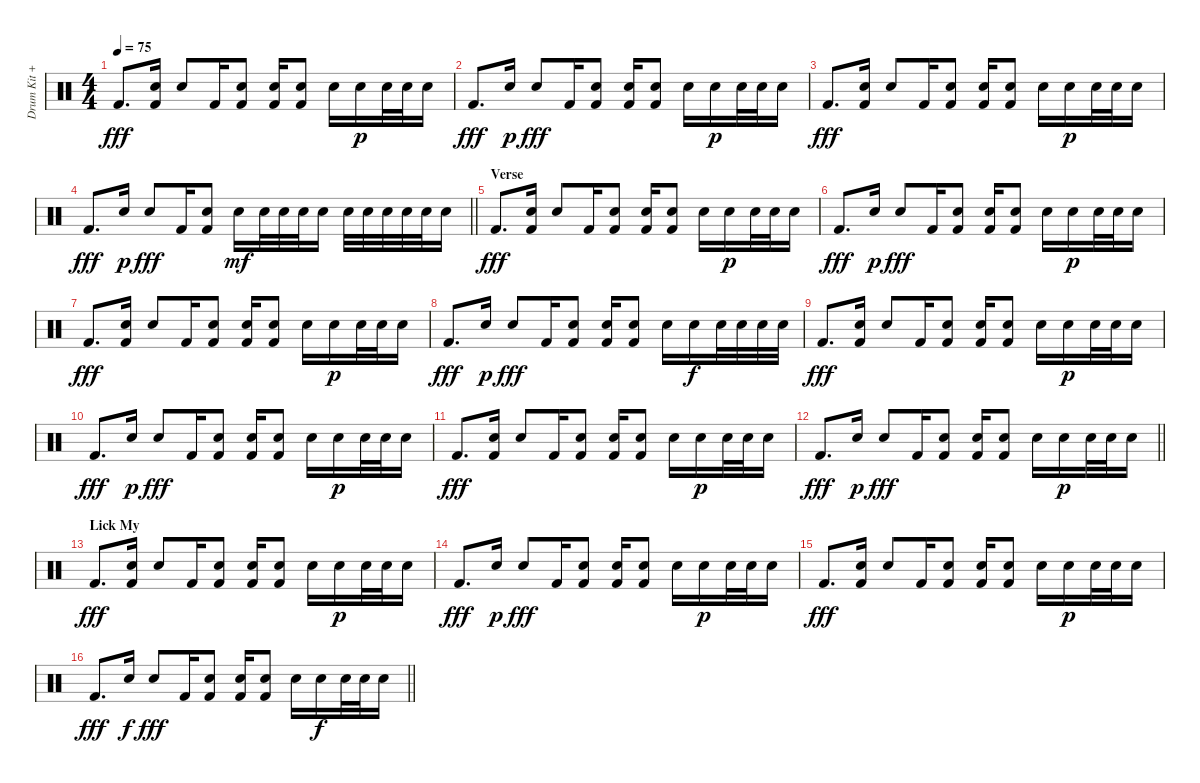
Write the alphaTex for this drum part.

\track ("Drum Kit + Claps" "Drum Kit +") {instrument percussion}
\staff {score}
\articulation defaults
\ts (4 4)
\tempo 75
\clef neutral
\ks c "Kick (hit) 2".8{d dy fff}
("Snare (hit) 2" "Kick (hit) 2").16 "Hand Clap (hit)".8 "Kick (hit) 2".16 ("Snare (hit) 2" "Kick (hit) 2").8 ("Snare (hit) 2" "Kick (hit) 2").16 ("Snare (hit) 2" "Kick (hit) 2").8 "Hand Clap (hit)".16 "Snare (hit) 2".16{dy p} "Snare (hit) 2".32 "Snare (hit) 2".32 "Snare (hit) 2".16 |
"Kick (hit) 2".8{d dy fff} "Snare (hit) 2".16{dy p} "Hand Clap (hit)".8{dy fff} "Kick (hit) 2".16 ("Snare (hit) 2" "Kick (hit) 2").8 ("Snare (hit) 2" "Kick (hit) 2").16 ("Snare (hit) 2" "Kick (hit) 2").8 "Hand Clap (hit)".16 "Snare (hit) 2".16{dy p} "Snare (hit) 2".32 "Snare (hit) 2".32 "Snare (hit) 2".16 |
"Kick (hit) 2".8{d dy fff} ("Snare (hit) 2" "Kick (hit) 2").16 "Hand Clap (hit)".8 "Kick (hit) 2".16 ("Snare (hit) 2" "Kick (hit) 2").8 ("Snare (hit) 2" "Kick (hit) 2").16 ("Snare (hit) 2" "Kick (hit) 2").8 "Hand Clap (hit)".16 "Snare (hit) 2".16{dy p} "Snare (hit) 2".32 "Snare (hit) 2".32 "Snare (hit) 2".16 |
\barLineRight lightlight "Kick (hit) 2".8{d dy fff} "Snare (hit) 2".16{dy p} "Hand Clap (hit)".8{dy fff} "Kick (hit) 2".16
("Snare (hit) 2" "Kick (hit) 2").8 "Hand Clap (hit)".16{dy mf} "Hand Clap (hit)".32 "Hand Clap (hit)".32 "Hand Clap (hit)".32 "Hand Clap (hit)".16 "Hand Clap (hit)".32 "Hand Clap (hit)".32 "Hand Clap (hit)".32 "Hand Clap (hit)".32 "Hand Clap (hit)".32 "Hand Clap (hit)".16 |
\section ("" "Verse")
"Kick (hit) 2".8{d dy fff} ("Snare (hit) 2" "Kick (hit) 2").16 "Hand Clap (hit)".8 "Kick (hit) 2".16 ("Snare (hit) 2" "Kick (hit) 2").8 ("Snare (hit) 2" "Kick (hit) 2").16 ("Snare (hit) 2" "Kick (hit) 2").8 "Hand Clap (hit)".16 "Snare (hit) 2".16{dy p} "Snare (hit) 2".32 "Snare (hit) 2".32 "Snare (hit) 2".16 |
"Kick (hit) 2".8{d dy fff} "Snare (hit) 2".16{dy p} "Hand Clap (hit)".8{dy fff} "Kick (hit) 2".16 ("Snare (hit) 2" "Kick (hit) 2").8 ("Snare (hit) 2" "Kick (hit) 2").16 ("Snare (hit) 2" "Kick (hit) 2").8 "Hand Clap (hit)".16 "Snare (hit) 2".16{dy p} "Snare (hit) 2".32 "Snare (hit) 2".32 "Snare (hit) 2".16 |
"Kick (hit) 2".8{d dy fff} ("Snare (hit) 2" "Kick (hit) 2").16 "Hand Clap (hit)".8 "Kick (hit) 2".16 ("Snare (hit) 2" "Kick (hit) 2").8 ("Snare (hit) 2" "Kick (hit) 2").16 ("Snare (hit) 2" "Kick (hit) 2").8 "Hand Clap (hit)".16 "Snare (hit) 2".16{dy p} "Snare (hit) 2".32 "Snare (hit) 2".32 "Snare (hit) 2".16 |
"Kick (hit) 2".8{d dy fff} "Snare (hit) 2".16{dy p} "Hand Clap (hit)".8{dy fff} "Kick (hit) 2".16 ("Snare (hit) 2" "Kick (hit) 2").8 ("Snare (hit) 2" "Kick (hit) 2").16 ("Snare (hit) 2" "Kick (hit) 2").8 "Hand Clap (hit)".16 "Hand Clap (hit)".16{dy f} "Hand Clap (hit)".32 "Hand Clap (hit)".32 "Hand Clap (hit)".32 "Hand Clap (hit)".32 |
"Kick (hit) 2".8{d dy fff} ("Snare (hit) 2" "Kick (hit) 2").16 "Hand Clap (hit)".8 "Kick (hit) 2".16 ("Snare (hit) 2" "Kick (hit) 2").8 ("Snare (hit) 2" "Kick (hit) 2").16 ("Snare (hit) 2" "Kick (hit) 2").8 "Hand Clap (hit)".16 "Snare (hit) 2".16{dy p} "Snare (hit) 2".32 "Snare (hit) 2".32 "Snare (hit) 2".16 |
"Kick (hit) 2".8{d dy fff} "Snare (hit) 2".16{dy p} "Hand Clap (hit)".8{dy fff} "Kick (hit) 2".16 ("Snare (hit) 2" "Kick (hit) 2").8 ("Snare (hit) 2" "Kick (hit) 2").16 ("Snare (hit) 2" "Kick (hit) 2").8 "Hand Clap (hit)".16 "Snare (hit) 2".16{dy p} "Snare (hit) 2".32 "Snare (hit) 2".32 "Snare (hit) 2".16 |
"Kick (hit) 2".8{d dy fff} ("Snare (hit) 2" "Kick (hit) 2").16 "Hand Clap (hit)".8 "Kick (hit) 2".16 ("Snare (hit) 2" "Kick (hit) 2").8 ("Snare (hit) 2" "Kick (hit) 2").16 ("Snare (hit) 2" "Kick (hit) 2").8 "Hand Clap (hit)".16 "Snare (hit) 2".16{dy p} "Snare (hit) 2".32 "Snare (hit) 2".32 "Snare (hit) 2".16 |
\barLineRight lightlight "Kick (hit) 2".8{d dy fff} "Snare (hit) 2".16{dy p} "Hand Clap (hit)".8{dy fff} "Kick (hit) 2".16
("Snare (hit) 2" "Kick (hit) 2").8 ("Snare (hit) 2" "Kick (hit) 2").16 ("Snare (hit) 2" "Kick (hit) 2").8 "Hand Clap (hit)".16 "Snare (hit) 2".16{dy p} "Snare (hit) 2".32 "Snare (hit) 2".32 "Snare (hit) 2".16 |
\section ("" "Lick My")
"Kick (hit) 2".8{d dy fff} ("Snare (hit) 2" "Kick (hit) 2").16 "Hand Clap (hit)".8 "Kick (hit) 2".16 ("Snare (hit) 2" "Kick (hit) 2").8 ("Snare (hit) 2" "Kick (hit) 2").16 ("Snare (hit) 2" "Kick (hit) 2").8 "Hand Clap (hit)".16 "Snare (hit) 2".16{dy p} "Snare (hit) 2".32 "Snare (hit) 2".32 "Snare (hit) 2".16 |
"Kick (hit) 2".8{d dy fff} "Snare (hit) 2".16{dy p} "Hand Clap (hit)".8{dy fff} "Kick (hit) 2".16 ("Snare (hit) 2" "Kick (hit) 2").8 ("Snare (hit) 2" "Kick (hit) 2").16 ("Snare (hit) 2" "Kick (hit) 2").8 "Hand Clap (hit)".16 "Snare (hit) 2".16{dy p} "Snare (hit) 2".32 "Snare (hit) 2".32 "Snare (hit) 2".16 |
"Kick (hit) 2".8{d dy fff} ("Snare (hit) 2" "Kick (hit) 2").16 "Hand Clap (hit)".8 "Kick (hit) 2".16 ("Snare (hit) 2" "Kick (hit) 2").8 ("Snare (hit) 2" "Kick (hit) 2").16 ("Snare (hit) 2" "Kick (hit) 2").8 "Hand Clap (hit)".16 "Snare (hit) 2".16{dy p} "Snare (hit) 2".32 "Snare (hit) 2".32 "Snare (hit) 2".16 |
\barLineRight lightlight "Kick (hit) 2".8{d dy fff} "Snare (hit) 2".16{dy f} "Hand Clap (hit)".8{dy fff} "Kick (hit) 2".16
("Snare (hit) 2" "Kick (hit) 2").8 ("Snare (hit) 2" "Kick (hit) 2").16 ("Snare (hit) 2" "Kick (hit) 2").8 "Hand Clap (hit)".16 "Snare (hit) 2".16{dy f} "Snare (hit) 2".32 "Snare (hit) 2".32 "Snare (hit) 2".16
